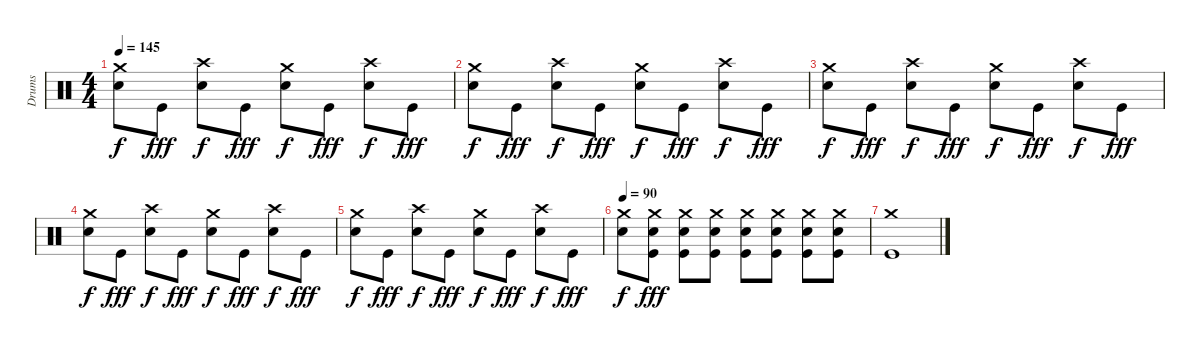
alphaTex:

\track ("Drums" "Drums") {instrument percussion}
\staff {score}
\articulation defaults
\ts (4 4)
\tempo 145
\clef neutral
\ks c
("Crash medium (hit)" "Snare (hit) 2").8{dy f} "Kick (hit)".8{dy fff} ("Crash high (hit)" "Snare (hit) 2").8{dy f} "Kick (hit)".8{dy fff} ("Crash medium (hit)" "Snare (hit) 2").8{dy f} "Kick (hit)".8{dy fff} ("Crash high (hit)" "Snare (hit) 2").8{dy f} "Kick (hit)".8{dy fff} |
("Crash medium (hit)" "Snare (hit) 2").8{dy f} "Kick (hit)".8{dy fff} ("Crash high (hit)" "Snare (hit) 2").8{dy f} "Kick (hit)".8{dy fff} ("Crash medium (hit)" "Snare (hit) 2").8{dy f} "Kick (hit)".8{dy fff} ("Crash high (hit)" "Snare (hit) 2").8{dy f} "Kick (hit)".8{dy fff} |
("Crash medium (hit)" "Snare (hit) 2").8{dy f} "Kick (hit)".8{dy fff} ("Crash high (hit)" "Snare (hit) 2").8{dy f} "Kick (hit)".8{dy fff} ("Crash medium (hit)" "Snare (hit) 2").8{dy f} "Kick (hit)".8{dy fff} ("Crash high (hit)" "Snare (hit) 2").8{dy f} "Kick (hit)".8{dy fff} |
("Crash medium (hit)" "Snare (hit) 2").8{dy f} "Kick (hit)".8{dy fff} ("Crash high (hit)" "Snare (hit) 2").8{dy f} "Kick (hit)".8{dy fff} ("Crash medium (hit)" "Snare (hit) 2").8{dy f} "Kick (hit)".8{dy fff} ("Crash high (hit)" "Snare (hit) 2").8{dy f} "Kick (hit)".8{dy fff} |
("Crash medium (hit)" "Snare (hit) 2").8{dy f} "Kick (hit)".8{dy fff} ("Crash high (hit)" "Snare (hit) 2").8{dy f} "Kick (hit)".8{dy fff} ("Crash medium (hit)" "Snare (hit) 2").8{dy f} "Kick (hit)".8{dy fff} ("Crash high (hit)" "Snare (hit) 2").8{dy f} "Kick (hit)".8{dy fff} |
\tempo 90
("Crash medium (hit)" "Snare (hit) 2").8{dy f} ("Crash medium (hit)" "Snare (hit) 2" "Kick (hit)").8{dy fff} ("Crash medium (hit)" "Snare (hit) 2" "Kick (hit)").8 ("Crash medium (hit)" "Snare (hit) 2" "Kick (hit)").8 ("Crash medium (hit)" "Snare (hit) 2" "Kick (hit)").8 ("Crash medium (hit)" "Snare (hit) 2" "Kick (hit)").8 ("Crash medium (hit)" "Snare (hit) 2" "Kick (hit)").8 ("Crash medium (hit)" "Snare (hit) 2" "Kick (hit)").8 |
("Crash medium (hit)" "Kick (hit)").1
